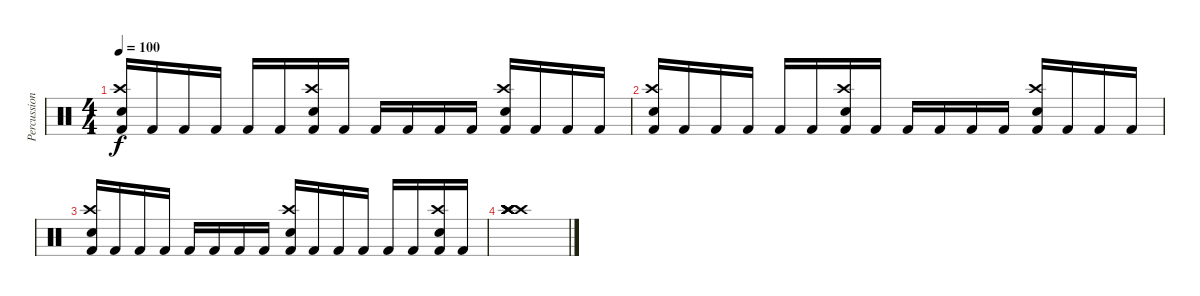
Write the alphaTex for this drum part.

\track ("Percussion" "Percussion") {instrument percussion}
\staff {score}
\articulation defaults
\ts (4 4)
\tempo 100
\clef neutral
\ks c
("Electric Snare (hit)" "Crash high (hit)" "Kick (hit) 2").16{dy f} "Kick (hit) 2".16 "Kick (hit) 2".16 "Kick (hit) 2".16 "Kick (hit) 2".16 "Kick (hit) 2".16 ("Electric Snare (hit)" "Crash high (hit)" "Kick (hit) 2").16 "Kick (hit) 2".16 "Kick (hit) 2".16 "Kick (hit) 2".16 "Kick (hit) 2".16 "Kick (hit) 2".16 ("Electric Snare (hit)" "Crash high (hit)" "Kick (hit) 2").16 "Kick (hit) 2".16 "Kick (hit) 2".16 "Kick (hit) 2".16 |
("Electric Snare (hit)" "Crash high (hit)" "Kick (hit) 2").16 "Kick (hit) 2".16 "Kick (hit) 2".16 "Kick (hit) 2".16 "Kick (hit) 2".16 "Kick (hit) 2".16 ("Electric Snare (hit)" "Crash high (hit)" "Kick (hit) 2").16 "Kick (hit) 2".16 "Kick (hit) 2".16 "Kick (hit) 2".16 "Kick (hit) 2".16 "Kick (hit) 2".16 ("Electric Snare (hit)" "Crash high (hit)" "Kick (hit) 2").16 "Kick (hit) 2".16 "Kick (hit) 2".16 "Kick (hit) 2".16 |
("Electric Snare (hit)" "Crash high (hit)" "Kick (hit) 2").16 "Kick (hit) 2".16 "Kick (hit) 2".16 "Kick (hit) 2".16 "Kick (hit) 2".16 "Kick (hit) 2".16 "Kick (hit) 2".16 "Kick (hit) 2".16 ("Electric Snare (hit)" "Crash high (hit)" "Kick (hit) 2").16 "Kick (hit) 2".16 "Kick (hit) 2".16 "Kick (hit) 2".16 "Kick (hit) 2".16 "Kick (hit) 2".16 ("Electric Snare (hit)" "Crash high (hit)" "Kick (hit) 2").16 "Kick (hit) 2".16 |
("Crash high (hit)" "Crash high (hit)" "Crash high (hit)" "Crash high (hit)" "Crash high (hit)" "Crash high (hit)").1
